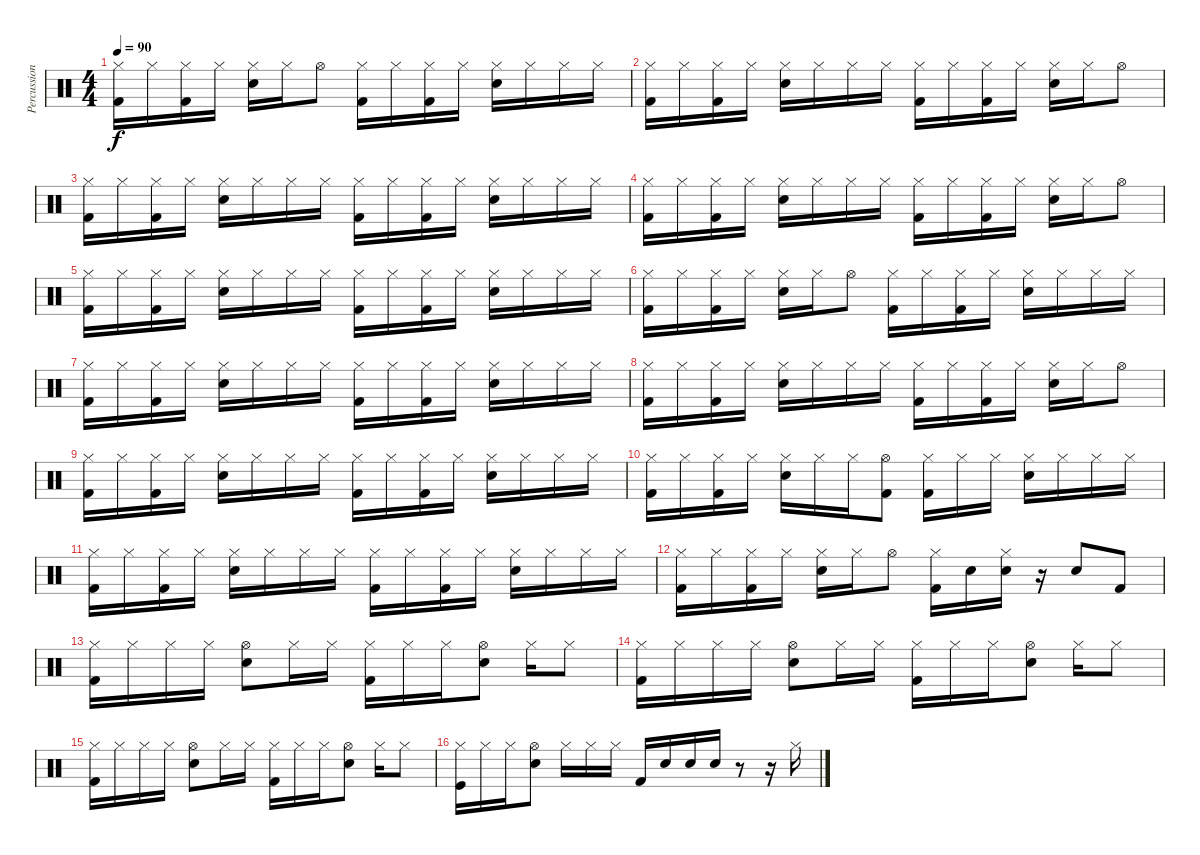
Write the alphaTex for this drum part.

\track ("Percussion" "Percussion") {instrument percussion}
\staff {score}
\articulation defaults
\ts (4 4)
\tempo 90
\clef neutral
\ks c
("Hi-Hat (closed)" "Kick (hit) 2").16{dy f} "Hi-Hat (closed)".16 ("Hi-Hat (closed)" "Kick (hit) 2").16 "Hi-Hat (closed)".16 ("Hi-Hat (closed)" "Electric Snare (hit)").16 "Hi-Hat (closed)".16 "Hi-Hat (open)".8 ("Hi-Hat (closed)" "Kick (hit) 2").16 "Hi-Hat (closed)".16 ("Hi-Hat (closed)" "Kick (hit) 2").16 "Hi-Hat (closed)".16 ("Hi-Hat (closed)" "Electric Snare (hit)").16 "Hi-Hat (closed)".16 "Hi-Hat (closed)".16 "Hi-Hat (closed)".16 |
("Hi-Hat (closed)" "Kick (hit) 2").16 "Hi-Hat (closed)".16 ("Hi-Hat (closed)" "Kick (hit) 2").16 "Hi-Hat (closed)".16 ("Hi-Hat (closed)" "Electric Snare (hit)").16 "Hi-Hat (closed)".16 "Hi-Hat (closed)".16 "Hi-Hat (closed)".16 ("Hi-Hat (closed)" "Kick (hit) 2").16 "Hi-Hat (closed)".16 ("Hi-Hat (closed)" "Kick (hit) 2").16 "Hi-Hat (closed)".16 ("Hi-Hat (closed)" "Electric Snare (hit)").16 "Hi-Hat (closed)".16 "Hi-Hat (open)".8 |
("Hi-Hat (closed)" "Kick (hit) 2").16 "Hi-Hat (closed)".16 ("Hi-Hat (closed)" "Kick (hit) 2").16 "Hi-Hat (closed)".16 ("Hi-Hat (closed)" "Electric Snare (hit)").16 "Hi-Hat (closed)".16 "Hi-Hat (closed)".16 "Hi-Hat (closed)".16 ("Hi-Hat (closed)" "Kick (hit) 2").16 "Hi-Hat (closed)".16 ("Hi-Hat (closed)" "Kick (hit) 2").16 "Hi-Hat (closed)".16 ("Hi-Hat (closed)" "Electric Snare (hit)").16 "Hi-Hat (closed)".16 "Hi-Hat (closed)".16 "Hi-Hat (closed)".16 |
("Hi-Hat (closed)" "Kick (hit) 2").16 "Hi-Hat (closed)".16 ("Hi-Hat (closed)" "Kick (hit) 2").16 "Hi-Hat (closed)".16 ("Hi-Hat (closed)" "Electric Snare (hit)").16 "Hi-Hat (closed)".16 "Hi-Hat (closed)".16 "Hi-Hat (closed)".16 ("Hi-Hat (closed)" "Kick (hit) 2").16 "Hi-Hat (closed)".16 ("Hi-Hat (closed)" "Kick (hit) 2").16 "Hi-Hat (closed)".16 ("Hi-Hat (closed)" "Electric Snare (hit)").16 "Hi-Hat (closed)".16 "Hi-Hat (open)".8 |
("Hi-Hat (closed)" "Kick (hit) 2").16 "Hi-Hat (closed)".16 ("Hi-Hat (closed)" "Kick (hit) 2").16 "Hi-Hat (closed)".16 ("Hi-Hat (closed)" "Electric Snare (hit)").16 "Hi-Hat (closed)".16 "Hi-Hat (closed)".16 "Hi-Hat (closed)".16 ("Hi-Hat (closed)" "Kick (hit) 2").16 "Hi-Hat (closed)".16 ("Hi-Hat (closed)" "Kick (hit) 2").16 "Hi-Hat (closed)".16 ("Hi-Hat (closed)" "Electric Snare (hit)").16 "Hi-Hat (closed)".16 "Hi-Hat (closed)".16 "Hi-Hat (closed)".16 |
("Hi-Hat (closed)" "Kick (hit) 2").16 "Hi-Hat (closed)".16 ("Hi-Hat (closed)" "Kick (hit) 2").16 "Hi-Hat (closed)".16 ("Hi-Hat (closed)" "Electric Snare (hit)").16 "Hi-Hat (closed)".16 "Hi-Hat (open)".8 ("Hi-Hat (closed)" "Kick (hit) 2").16 "Hi-Hat (closed)".16 ("Hi-Hat (closed)" "Kick (hit) 2").16 "Hi-Hat (closed)".16 ("Hi-Hat (closed)" "Electric Snare (hit)").16 "Hi-Hat (closed)".16 "Hi-Hat (closed)".16 "Hi-Hat (closed)".16 |
("Hi-Hat (closed)" "Kick (hit) 2").16 "Hi-Hat (closed)".16 ("Hi-Hat (closed)" "Kick (hit) 2").16 "Hi-Hat (closed)".16 ("Hi-Hat (closed)" "Electric Snare (hit)").16 "Hi-Hat (closed)".16 "Hi-Hat (closed)".16 "Hi-Hat (closed)".16 ("Hi-Hat (closed)" "Kick (hit) 2").16 "Hi-Hat (closed)".16 ("Hi-Hat (closed)" "Kick (hit) 2").16 "Hi-Hat (closed)".16 ("Hi-Hat (closed)" "Electric Snare (hit)").16 "Hi-Hat (closed)".16 "Hi-Hat (closed)".16 "Hi-Hat (closed)".16 |
("Hi-Hat (closed)" "Kick (hit) 2").16 "Hi-Hat (closed)".16 ("Hi-Hat (closed)" "Kick (hit) 2").16 "Hi-Hat (closed)".16 ("Hi-Hat (closed)" "Electric Snare (hit)").16 "Hi-Hat (closed)".16 "Hi-Hat (closed)".16 "Hi-Hat (closed)".16 ("Hi-Hat (closed)" "Kick (hit) 2").16 "Hi-Hat (closed)".16 ("Hi-Hat (closed)" "Kick (hit) 2").16 "Hi-Hat (closed)".16 ("Hi-Hat (closed)" "Electric Snare (hit)").16 "Hi-Hat (closed)".16 "Hi-Hat (open)".8 |
("Hi-Hat (closed)" "Kick (hit) 2").16 "Hi-Hat (closed)".16 ("Hi-Hat (closed)" "Kick (hit) 2").16 "Hi-Hat (closed)".16 ("Hi-Hat (closed)" "Electric Snare (hit)").16 "Hi-Hat (closed)".16 "Hi-Hat (closed)".16 "Hi-Hat (closed)".16 ("Hi-Hat (closed)" "Kick (hit) 2").16 "Hi-Hat (closed)".16 ("Hi-Hat (closed)" "Kick (hit) 2").16 "Hi-Hat (closed)".16 ("Hi-Hat (closed)" "Electric Snare (hit)").16 "Hi-Hat (closed)".16 "Hi-Hat (closed)".16 "Hi-Hat (closed)".16 |
("Hi-Hat (closed)" "Kick (hit) 2").16 "Hi-Hat (closed)".16 ("Hi-Hat (closed)" "Kick (hit) 2").16 "Hi-Hat (closed)".16 ("Hi-Hat (closed)" "Electric Snare (hit)").16 "Hi-Hat (closed)".16 "Hi-Hat (closed)".16 ("Hi-Hat (open)" "Kick (hit) 2").8 ("Hi-Hat (closed)" "Kick (hit) 2").16 "Hi-Hat (closed)".16 "Hi-Hat (closed)".16 ("Hi-Hat (closed)" "Electric Snare (hit)").16 "Hi-Hat (closed)".16 "Hi-Hat (closed)".16 "Hi-Hat (closed)".16 |
("Hi-Hat (closed)" "Kick (hit) 2").16 "Hi-Hat (closed)".16 ("Hi-Hat (closed)" "Kick (hit) 2").16 "Hi-Hat (closed)".16 ("Hi-Hat (closed)" "Electric Snare (hit)").16 "Hi-Hat (closed)".16 "Hi-Hat (closed)".16 "Hi-Hat (closed)".16 ("Hi-Hat (closed)" "Kick (hit) 2").16 "Hi-Hat (closed)".16 ("Hi-Hat (closed)" "Kick (hit) 2").16 "Hi-Hat (closed)".16 ("Hi-Hat (closed)" "Electric Snare (hit)").16 "Hi-Hat (closed)".16 "Hi-Hat (closed)".16 "Hi-Hat (closed)".16 |
("Hi-Hat (closed)" "Kick (hit) 2").16 "Hi-Hat (closed)".16 ("Hi-Hat (closed)" "Kick (hit) 2").16 "Hi-Hat (closed)".16 ("Hi-Hat (closed)" "Electric Snare (hit)").16 "Hi-Hat (closed)".16 "Hi-Hat (open)".8 ("Hi-Hat (closed)" "Kick (hit) 2").16 "Electric Snare (hit)".16 ("Hi-Hat (closed)" "Electric Snare (hit)").16 r.16 "Electric Snare (hit)".8 "Kick (hit) 2".8 |
("Hi-Hat (closed)" "Kick (hit) 2").16 "Hi-Hat (closed)".16 "Hi-Hat (closed)".16 "Hi-Hat (closed)".16 ("Hi-Hat (open)" "Electric Snare (hit)").8 "Hi-Hat (closed)".16 "Hi-Hat (closed)".16 ("Hi-Hat (closed)" "Kick (hit) 2").16 "Hi-Hat (closed)".16 "Hi-Hat (closed)".16 ("Hi-Hat (open)" "Electric Snare (hit)").8 "Hi-Hat (closed)".16 "Hi-Hat (closed)".8 |
("Hi-Hat (closed)" "Kick (hit) 2").16 "Hi-Hat (closed)".16 "Hi-Hat (closed)".16 "Hi-Hat (closed)".16 ("Hi-Hat (open)" "Electric Snare (hit)").8 "Hi-Hat (closed)".16 "Hi-Hat (closed)".16 ("Hi-Hat (closed)" "Kick (hit) 2").16 "Hi-Hat (closed)".16 "Hi-Hat (closed)".16 ("Hi-Hat (open)" "Electric Snare (hit)").8 "Hi-Hat (closed)".16 "Hi-Hat (closed)".8 |
("Hi-Hat (closed)" "Kick (hit) 2").16 "Hi-Hat (closed)".16 "Hi-Hat (closed)".16 "Hi-Hat (closed)".16 ("Hi-Hat (open)" "Electric Snare (hit)").8 "Hi-Hat (closed)".16 "Hi-Hat (closed)".16 ("Hi-Hat (closed)" "Kick (hit) 2").16 "Hi-Hat (closed)".16 "Hi-Hat (closed)".16 ("Hi-Hat (open)" "Electric Snare (hit)").8 "Hi-Hat (closed)".16 "Hi-Hat (closed)".8 |
("Hi-Hat (closed)" "Kick (hit)").16 "Hi-Hat (closed)".16 "Hi-Hat (closed)".16 ("Hi-Hat (open)" "Electric Snare (hit)").8 "Hi-Hat (closed)".16 "Hi-Hat (closed)".16 "Hi-Hat (closed)".16 "Kick (hit) 2".16 "Electric Snare (hit)".16 "Electric Snare (hit)".16 "Electric Snare (hit)".16 r.8 r.16 "Hi-Hat (closed)".16
